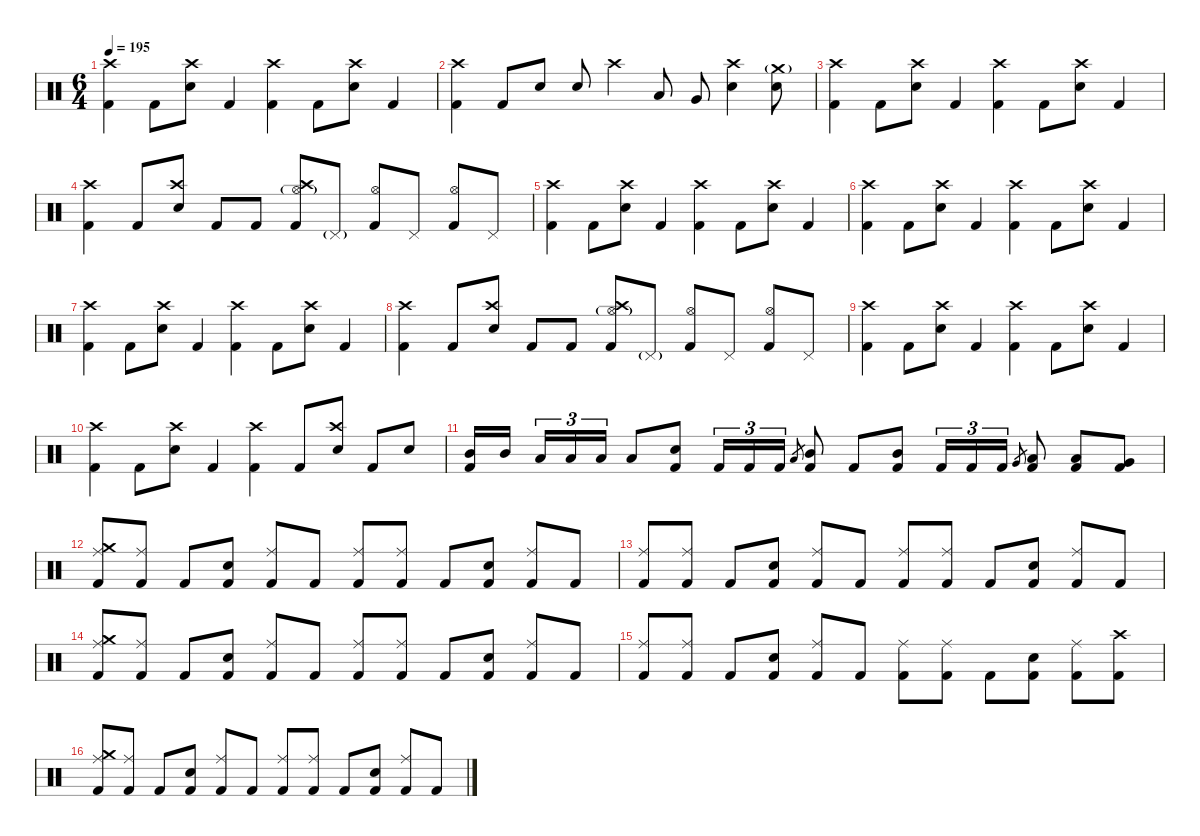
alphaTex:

\defaultSystemsLayout 4
\hideDynamics
\bracketExtendMode nobrackets
\singleTrackTrackNamePolicy hidden
\multiTrackTrackNamePolicy hidden
\firstSystemTrackNameMode fullname
\firstSystemTrackNameOrientation horizontal
\otherSystemsTrackNameOrientation horizontal
\track ("Drums" "drm.") {instrument percussion}
\staff {score}
\articulation defaults
\ts (6 4)
\tempo 195
\clef neutral
\ks c
("Crash high (hit)" "Kick (hit) 2").4{dy f beam Down} "Kick (hit) 2".8{beam Down} ("Crash high (hit)" "Snare (hit) 2").8{beam Down} "Kick (hit) 2".4{beam Up} ("Crash high (hit)" "Kick (hit) 2").4{beam Down} "Kick (hit) 2".8{beam Down} ("Crash high (hit)" "Snare (hit) 2").8{beam Down} "Kick (hit) 2".4{beam Up} |
("Crash high (hit)" "Kick (hit) 2").4{beam Down} "Kick (hit) 2".8{beam Up} "Snare (hit) 2".8{beam Up} "Snare (hit) 2".8{beam Up} "Crash high (hit)".4{beam Down} "Low Tom (hit)".8{beam Up} "Very Low Tom (hit)".8{beam Up} ("Crash high (hit)" "Snare (hit) 2").4{beam Down} ("Crash medium (hit)"{g} "Snare (hit) 2").8{beam Down} |
("Crash high (hit)" "Kick (hit) 2").4{beam Down} "Kick (hit) 2".8{beam Down} ("Crash high (hit)" "Snare (hit) 2").8{beam Down} "Kick (hit) 2".4{beam Up} ("Crash high (hit)" "Kick (hit) 2").4{beam Down} "Kick (hit) 2".8{beam Down} ("Crash high (hit)" "Snare (hit) 2").8{beam Down} "Kick (hit) 2".4{beam Up} |
("Crash high (hit)" "Kick (hit) 2").4{beam Down} "Kick (hit) 2".8{beam Up} ("Crash high (hit)" "Snare (hit) 2").8{beam Up} "Kick (hit) 2".8{beam Up} "Kick (hit) 2".8{beam Up} ("Crash high (hit)" "Hi-Hat (open)"{g} "Kick (hit) 2").8{beam Up} "Pedal Hi-Hat (hit)"{g}.8{dy mf beam Up} ("Hi-Hat (open)" "Kick (hit) 2").8{dy f beam Up} "Pedal Hi-Hat (hit)".8{beam Up} ("Hi-Hat (open)" "Kick (hit) 2").8{beam Up} "Pedal Hi-Hat (hit)".8{beam Up} |
("Crash high (hit)" "Kick (hit) 2").4{beam Down} "Kick (hit) 2".8{beam Down} ("Crash high (hit)" "Snare (hit) 2").8{beam Down} "Kick (hit) 2".4{beam Up} ("Crash high (hit)" "Kick (hit) 2").4{beam Down} "Kick (hit) 2".8{beam Down} ("Crash high (hit)" "Snare (hit) 2").8{beam Down} "Kick (hit) 2".4{beam Up} |
("Crash high (hit)" "Kick (hit) 2").4{beam Down} "Kick (hit) 2".8{beam Down} ("Crash high (hit)" "Snare (hit) 2").8{beam Down} "Kick (hit) 2".4{beam Up} ("Crash high (hit)" "Kick (hit) 2").4{beam Down} "Kick (hit) 2".8{beam Down} ("Crash high (hit)" "Snare (hit) 2").8{beam Down} "Kick (hit) 2".4{beam Up} |
("Crash high (hit)" "Kick (hit) 2").4{beam Down} "Kick (hit) 2".8{beam Down} ("Crash high (hit)" "Snare (hit) 2").8{beam Down} "Kick (hit) 2".4{beam Up} ("Crash high (hit)" "Kick (hit) 2").4{beam Down} "Kick (hit) 2".8{beam Down} ("Crash high (hit)" "Snare (hit) 2").8{beam Down} "Kick (hit) 2".4{beam Up} |
("Crash high (hit)" "Kick (hit) 2").4{beam Down} "Kick (hit) 2".8{beam Up} ("Crash high (hit)" "Snare (hit) 2").8{beam Up} "Kick (hit) 2".8{beam Up} "Kick (hit) 2".8{beam Up} ("Crash high (hit)" "Hi-Hat (open)"{g} "Kick (hit) 2").8{beam Up} "Pedal Hi-Hat (hit)"{g}.8{dy mf beam Up} ("Hi-Hat (open)" "Kick (hit) 2").8{dy f beam Up} "Pedal Hi-Hat (hit)".8{beam Up} ("Hi-Hat (open)" "Kick (hit) 2").8{beam Up} "Pedal Hi-Hat (hit)".8{beam Up} |
("Crash high (hit)" "Kick (hit) 2").4{beam Down} "Kick (hit) 2".8{beam Down} ("Crash high (hit)" "Snare (hit) 2").8{beam Down} "Kick (hit) 2".4{beam Up} ("Crash high (hit)" "Kick (hit) 2").4{beam Down} "Kick (hit) 2".8{beam Down} ("Crash high (hit)" "Snare (hit) 2").8{beam Down} "Kick (hit) 2".4{beam Up} |
("Crash high (hit)" "Kick (hit) 2").4{beam Down} "Kick (hit) 2".8{beam Down} ("Crash high (hit)" "Snare (hit) 2").8{beam Down} "Kick (hit) 2".4{beam Up} ("Crash high (hit)" "Kick (hit) 2").4{beam Down} "Kick (hit) 2".8{beam Up} ("Crash high (hit)" "Snare (hit) 2").8{beam Up} "Kick (hit) 2".8{beam Up} "Snare (hit) 2".8{beam Up} |
("Mid Tom (hit)" "Kick (hit) 2").16{beam Up} "Mid Tom (hit)".16{beam Up} "Low Tom (hit)".16{tu (3 2) beam Up} "Low Tom (hit)".16{tu (3 2) beam Up} "Low Tom (hit)".16{tu (3 2) beam Up} "Low Tom (hit)".8{beam Up} ("Snare (hit) 2" "Kick (hit) 2").8{beam Up} "Kick (hit) 2".16{tu (3 2) beam Up} "Kick (hit) 2".16{tu (3 2) beam Up} "Kick (hit) 2".16{tu (3 2) beam Up} "Low Tom (hit)".8{gr dy mf beam Up} ("Mid Tom (hit)" "Kick (hit) 2").8{dy f beam Up} "Kick (hit) 2".8{beam Up} ("Mid Tom (hit)" "Kick (hit) 2").8{beam Up} "Kick (hit) 2".16{tu (3 2) beam Up} "Kick (hit) 2".16{tu (3 2) beam Up} "Kick (hit) 2".16{tu (3 2) beam Up} "Very Low Tom (hit)".8{gr dy p beam Up} ("Low Tom (hit)" "Kick (hit) 2").8{dy f beam Up} ("Low Tom (hit)" "Kick (hit) 2").8{beam Up} ("Very Low Tom (hit)" "Kick (hit) 2").8{beam Up} |
("Ride (middle)" "Crash medium (hit)" "Kick (hit) 2").8{beam Up} ("Ride (middle)" "Kick (hit) 2").8{beam Up} "Kick (hit) 2".8{beam Up} ("Snare (hit) 2" "Kick (hit) 2").8{beam Up} ("Ride (middle)" "Kick (hit) 2").8{beam Up} "Kick (hit) 2".8{beam Up} ("Ride (middle)" "Kick (hit) 2").8{beam Up} ("Ride (middle)" "Kick (hit) 2").8{beam Up} "Kick (hit) 2".8{beam Up} ("Snare (hit) 2" "Kick (hit) 2").8{beam Up} ("Ride (middle)" "Kick (hit) 2").8{beam Up} "Kick (hit) 2".8{beam Up} |
("Ride (middle)" "Kick (hit) 2").8{beam Up} ("Ride (middle)" "Kick (hit) 2").8{beam Up} "Kick (hit) 2".8{beam Up} ("Snare (hit) 2" "Kick (hit) 2").8{beam Up} ("Ride (middle)" "Kick (hit) 2").8{beam Up} "Kick (hit) 2".8{beam Up} ("Ride (middle)" "Kick (hit) 2").8{beam Up} ("Ride (middle)" "Kick (hit) 2").8{beam Up} "Kick (hit) 2".8{beam Up} ("Snare (hit) 2" "Kick (hit) 2").8{beam Up} ("Ride (middle)" "Kick (hit) 2").8{beam Up} "Kick (hit) 2".8{beam Up} |
("Ride (middle)" "Crash medium (hit)" "Kick (hit) 2").8{beam Up} ("Ride (middle)" "Kick (hit) 2").8{beam Up} "Kick (hit) 2".8{beam Up} ("Snare (hit) 2" "Kick (hit) 2").8{beam Up} ("Ride (middle)" "Kick (hit) 2").8{beam Up} "Kick (hit) 2".8{beam Up} ("Ride (middle)" "Kick (hit) 2").8{beam Up} ("Ride (middle)" "Kick (hit) 2").8{beam Up} "Kick (hit) 2".8{beam Up} ("Snare (hit) 2" "Kick (hit) 2").8{beam Up} ("Ride (middle)" "Kick (hit) 2").8{beam Up} "Kick (hit) 2".8{beam Up} |
("Ride (middle)" "Kick (hit) 2").8{beam Up} ("Ride (middle)" "Kick (hit) 2").8{beam Up} "Kick (hit) 2".8{beam Up} ("Snare (hit) 2" "Kick (hit) 2").8{beam Up} ("Ride (middle)" "Kick (hit) 2").8{beam Up} "Kick (hit) 2".8{beam Up} ("Ride (middle)" "Kick (hit) 2").8{beam Down} ("Ride (middle)" "Kick (hit) 2").8{beam Down} "Kick (hit) 2".8{beam Down} ("Snare (hit) 2" "Kick (hit) 2").8{beam Down} ("Ride (middle)" "Kick (hit) 2").8{beam Down} ("Crash high (hit)" "Kick (hit) 2").8{beam Down} |
("Ride (middle)" "Crash medium (hit)" "Kick (hit) 2").8{beam Up} ("Ride (middle)" "Kick (hit) 2").8{beam Up} "Kick (hit) 2".8{beam Up} ("Snare (hit) 2" "Kick (hit) 2").8{beam Up} ("Ride (middle)" "Kick (hit) 2").8{beam Up} "Kick (hit) 2".8{beam Up} ("Ride (middle)" "Kick (hit) 2").8{beam Up} ("Ride (middle)" "Kick (hit) 2").8{beam Up} "Kick (hit) 2".8{beam Up} ("Snare (hit) 2" "Kick (hit) 2").8{beam Up} ("Ride (middle)" "Kick (hit) 2").8{beam Up} "Kick (hit) 2".8{beam Up}
